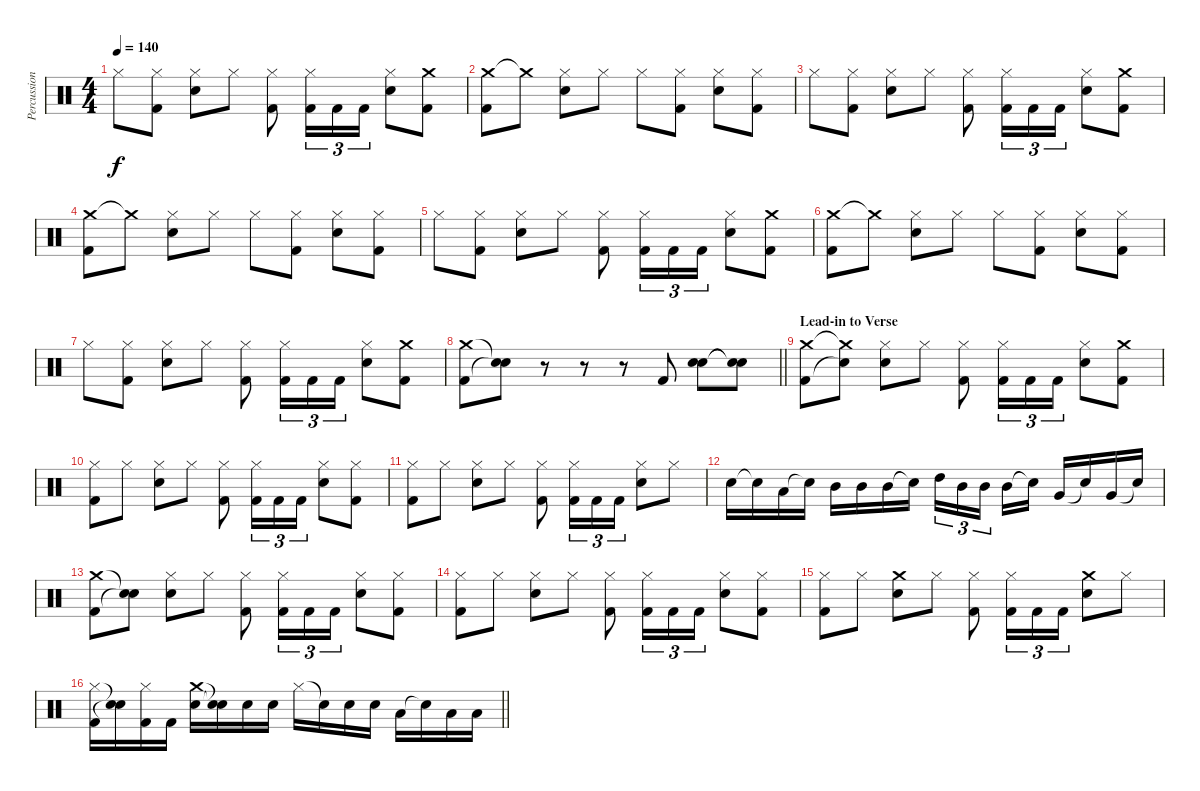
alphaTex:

\track ("Percussion" "Percussion") {instrument percussion}
\staff {score}
\articulation defaults
\ts (4 4)
\tempo 140
\clef neutral
\ks c "Hi-Hat (closed)".8{dy f}
("Hi-Hat (closed)" "Kick (hit) 2").8 ("Hi-Hat (closed)" "Snare (hit) 2").8 "Hi-Hat (closed)".8 ("Hi-Hat (closed)" "Kick (hit) 2").8 ("Hi-Hat (closed)" "Kick (hit) 2").16{tu (3 2)} "Kick (hit) 2".16{tu (3 2)} "Kick (hit) 2".16{tu (3 2)} ("Hi-Hat (closed)" "Snare (hit) 2").8 ("Crash medium (hit)" "Kick (hit) 2").8 |
("Crash medium (hit)" "Kick (hit) 2").8 "Crash medium (hit)"{t}.8 ("Hi-Hat (closed)" "Snare (hit) 2").8 "Hi-Hat (closed)".8 "Hi-Hat (closed)".8 ("Hi-Hat (closed)" "Kick (hit) 2").8 ("Hi-Hat (closed)" "Snare (hit) 2").8 ("Hi-Hat (closed)" "Kick (hit) 2").8 |
"Hi-Hat (closed)".8 ("Hi-Hat (closed)" "Kick (hit) 2").8 ("Hi-Hat (closed)" "Snare (hit) 2").8 "Hi-Hat (closed)".8 ("Hi-Hat (closed)" "Kick (hit) 2").8 ("Hi-Hat (closed)" "Kick (hit) 2").16{tu (3 2)} "Kick (hit) 2".16{tu (3 2)} "Kick (hit) 2".16{tu (3 2)} ("Hi-Hat (closed)" "Snare (hit) 2").8 ("Crash medium (hit)" "Kick (hit) 2").8 |
("Crash medium (hit)" "Kick (hit) 2").8 "Crash medium (hit)"{t}.8 ("Hi-Hat (closed)" "Snare (hit) 2").8 "Hi-Hat (closed)".8 "Hi-Hat (closed)".8 ("Hi-Hat (closed)" "Kick (hit) 2").8 ("Hi-Hat (closed)" "Snare (hit) 2").8 ("Hi-Hat (closed)" "Kick (hit) 2").8 |
"Hi-Hat (closed)".8 ("Hi-Hat (closed)" "Kick (hit) 2").8 ("Hi-Hat (closed)" "Snare (hit) 2").8 "Hi-Hat (closed)".8 ("Hi-Hat (closed)" "Kick (hit) 2").8 ("Hi-Hat (closed)" "Kick (hit) 2").16{tu (3 2)} "Kick (hit) 2".16{tu (3 2)} "Kick (hit) 2".16{tu (3 2)} ("Hi-Hat (closed)" "Snare (hit) 2").8 ("Crash medium (hit)" "Kick (hit) 2").8 |
("Crash medium (hit)" "Kick (hit) 2").8 "Crash medium (hit)"{t}.8 ("Hi-Hat (closed)" "Snare (hit) 2").8 "Hi-Hat (closed)".8 "Hi-Hat (closed)".8 ("Hi-Hat (closed)" "Kick (hit) 2").8 ("Hi-Hat (closed)" "Snare (hit) 2").8 ("Hi-Hat (closed)" "Kick (hit) 2").8 |
"Hi-Hat (closed)".8 ("Hi-Hat (closed)" "Kick (hit) 2").8 ("Hi-Hat (closed)" "Snare (hit) 2").8 "Hi-Hat (closed)".8 ("Hi-Hat (closed)" "Kick (hit) 2").8 ("Hi-Hat (closed)" "Kick (hit) 2").16{tu (3 2)} "Kick (hit) 2".16{tu (3 2)} "Kick (hit) 2".16{tu (3 2)} ("Hi-Hat (closed)" "Snare (hit) 2").8 ("Crash medium (hit)" "Kick (hit) 2").8 |
\barLineRight lightlight
("Crash medium (hit)" "Kick (hit) 2").8 ("Snare (hit)"{t} "Snare (hit)"{t}).8 r.8 r.8 r.8 "Kick (hit) 2".8 ("Snare (hit) 2" "Snare (hit) 2").8 ("Snare (hit)"{t} "Snare (hit)"{t}).8 |
\section ("" "Lead-in to Verse")
("Crash medium (hit)" "Kick (hit) 2").8 ("Crash medium (hit)"{t} "Snare (hit)"{t}).8 ("Hi-Hat (closed)" "Snare (hit) 2").8 "Hi-Hat (closed)".8 ("Hi-Hat (closed)" "Kick (hit) 2").8 ("Hi-Hat (closed)" "Kick (hit) 2").16{tu (3 2)} "Kick (hit) 2".16{tu (3 2)} "Kick (hit) 2".16{tu (3 2)} ("Hi-Hat (closed)" "Snare (hit) 2").8 ("Crash medium (hit)" "Kick (hit) 2").8 |
("Hi-Hat (closed)" "Kick (hit) 2").8 "Hi-Hat (closed)".8 ("Hi-Hat (closed)" "Snare (hit) 2").8 "Hi-Hat (closed)".8 ("Hi-Hat (closed)" "Kick (hit) 2").8 ("Hi-Hat (closed)" "Kick (hit) 2").16{tu (3 2)} "Kick (hit) 2".16{tu (3 2)} "Kick (hit) 2".16{tu (3 2)} ("Hi-Hat (closed)" "Snare (hit) 2").8 ("Hi-Hat (closed)" "Kick (hit) 2").8 |
("Hi-Hat (closed)" "Kick (hit) 2").8 "Hi-Hat (closed)".8 ("Hi-Hat (closed)" "Snare (hit) 2").8 "Hi-Hat (closed)".8 ("Hi-Hat (closed)" "Kick (hit) 2").8 ("Hi-Hat (closed)" "Kick (hit) 2").16{tu (3 2)} "Kick (hit) 2".16{tu (3 2)} "Kick (hit) 2".16{tu (3 2)} ("Hi-Hat (closed)" "Snare (hit) 2").8 "Hi-Hat (closed)".8 |
"Snare (hit) 2".16 "Snare (hit)"{t}.16 "Low Tom (hit)".16 "Snare (hit)"{t}.16 "Mid Tom (hit)".16 "Mid Tom (hit)".16 "Mid Tom (hit)".16 "Snare (hit)"{t}.16 "High Tom (hit)".16{tu (3 2)} "Mid Tom (hit)".16{tu (3 2)} "Mid Tom (hit)".16{tu (3 2) beam splitsecondary} "Mid Tom (hit)".16 "Snare (hit)"{t}.16 "Very Low Tom (hit)".16 "Snare (hit)"{t}.16 "Very Low Tom (hit)".16 "Snare (hit)"{t}.16 |
("Crash medium (hit)" "Kick (hit) 2").8 ("Snare (hit)"{t} "Snare (hit)"{t}).8 ("Hi-Hat (closed)" "Snare (hit) 2").8 "Hi-Hat (closed)".8 ("Hi-Hat (closed)" "Kick (hit) 2").8 ("Hi-Hat (closed)" "Kick (hit) 2").16{tu (3 2)} "Kick (hit) 2".16{tu (3 2)} "Kick (hit) 2".16{tu (3 2)} ("Hi-Hat (closed)" "Snare (hit) 2").8 ("Hi-Hat (closed)" "Kick (hit) 2").8 |
("Hi-Hat (closed)" "Kick (hit) 2").8 "Hi-Hat (closed)".8 ("Hi-Hat (closed)" "Snare (hit) 2").8 "Hi-Hat (closed)".8 ("Hi-Hat (closed)" "Kick (hit) 2").8 ("Hi-Hat (closed)" "Kick (hit) 2").16{tu (3 2)} "Kick (hit) 2".16{tu (3 2)} "Kick (hit) 2".16{tu (3 2)} ("Hi-Hat (closed)" "Snare (hit) 2").8 ("Hi-Hat (closed)" "Kick (hit) 2").8 |
("Hi-Hat (closed)" "Kick (hit) 2").8 "Hi-Hat (closed)".8 ("Crash medium (hit)" "Snare (hit) 2").8 "Hi-Hat (closed)".8 ("Hi-Hat (closed)" "Kick (hit) 2").8 ("Hi-Hat (closed)" "Kick (hit) 2").16{tu (3 2)} "Kick (hit) 2".16{tu (3 2)} "Kick (hit) 2".16{tu (3 2)} ("Crash medium (hit)" "Snare (hit) 2").8 "Hi-Hat (closed)".8 |
\barLineRight lightlight
("Hi-Hat (closed)" "Kick (hit) 2").16 ("Snare (hit)"{t} "Snare (hit)"{t}).16 ("Hi-Hat (closed)" "Kick (hit) 2").16 "Kick (hit) 2".16 ("Crash medium (hit)" "Snare (hit) 2").16 ("Snare (hit)"{t} "Snare (hit)"{t}).16 "Snare (hit) 2".16 "Snare (hit) 2".16 "Hi-Hat (closed)".16 "Snare (hit)"{t}.16 "Snare (hit) 2".16 "Snare (hit) 2".16 "Low Tom (hit)".16 "Snare (hit)"{t}.16 "Low Tom (hit)".16 "Low Tom (hit)".16
